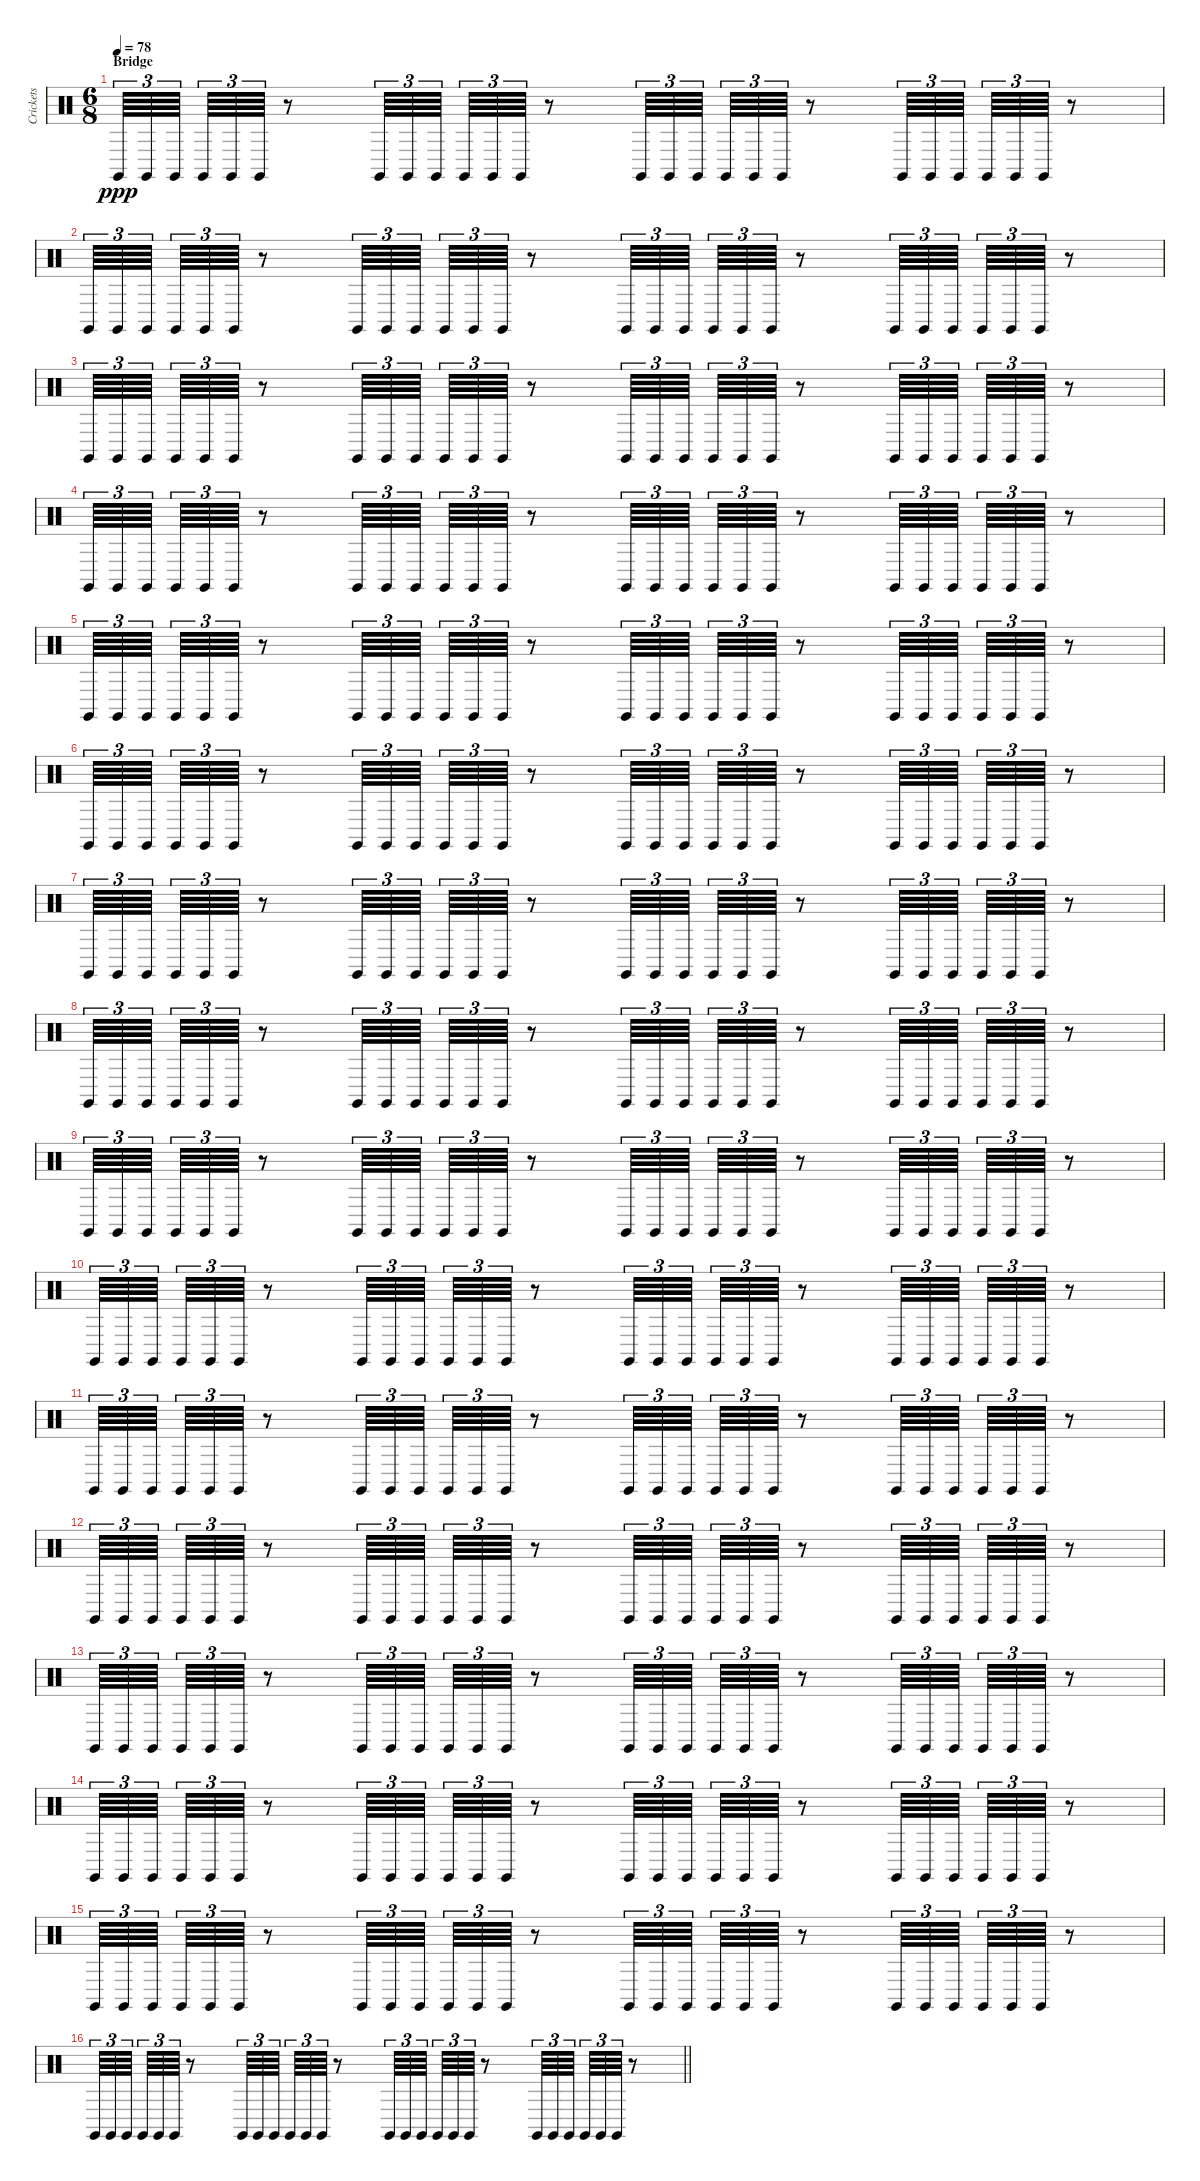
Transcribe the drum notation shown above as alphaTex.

\track ("Crickets" "Crickets") {instrument percussion}
\staff {score}
\articulation defaults
\ts (6 8)
\section ("" "Bridge")
\tempo 78
\clef neutral
\ks c "Claves (hit)".64{tu (3 2) dy ppp} "Claves (hit)".64{tu (3 2)} "Claves (hit)".64{tu (3 2) beam splitsecondary} "Claves (hit)".64{tu (3 2)} "Claves (hit)".64{tu (3 2)} "Claves (hit)".64{tu (3 2)}
r.8 "Claves (hit)".64{tu (3 2)} "Claves (hit)".64{tu (3 2)} "Claves (hit)".64{tu (3 2) beam splitsecondary} "Claves (hit)".64{tu (3 2)} "Claves (hit)".64{tu (3 2)} "Claves (hit)".64{tu (3 2)} r.8 "Claves (hit)".64{tu (3 2)} "Claves (hit)".64{tu (3 2)} "Claves (hit)".64{tu (3 2) beam splitsecondary} "Claves (hit)".64{tu (3 2)} "Claves (hit)".64{tu (3 2)} "Claves (hit)".64{tu (3 2)} r.8 "Claves (hit)".64{tu (3 2)} "Claves (hit)".64{tu (3 2)} "Claves (hit)".64{tu (3 2) beam splitsecondary} "Claves (hit)".64{tu (3 2)} "Claves (hit)".64{tu (3 2)} "Claves (hit)".64{tu (3 2)} r.8 |
"Claves (hit)".64{tu (3 2)} "Claves (hit)".64{tu (3 2)} "Claves (hit)".64{tu (3 2) beam splitsecondary} "Claves (hit)".64{tu (3 2)} "Claves (hit)".64{tu (3 2)} "Claves (hit)".64{tu (3 2)} r.8 "Claves (hit)".64{tu (3 2)} "Claves (hit)".64{tu (3 2)} "Claves (hit)".64{tu (3 2) beam splitsecondary} "Claves (hit)".64{tu (3 2)} "Claves (hit)".64{tu (3 2)} "Claves (hit)".64{tu (3 2)} r.8 "Claves (hit)".64{tu (3 2)} "Claves (hit)".64{tu (3 2)} "Claves (hit)".64{tu (3 2) beam splitsecondary} "Claves (hit)".64{tu (3 2)} "Claves (hit)".64{tu (3 2)} "Claves (hit)".64{tu (3 2)} r.8 "Claves (hit)".64{tu (3 2)} "Claves (hit)".64{tu (3 2)} "Claves (hit)".64{tu (3 2) beam splitsecondary} "Claves (hit)".64{tu (3 2)} "Claves (hit)".64{tu (3 2)} "Claves (hit)".64{tu (3 2)} r.8 |
"Claves (hit)".64{tu (3 2)} "Claves (hit)".64{tu (3 2)} "Claves (hit)".64{tu (3 2) beam splitsecondary} "Claves (hit)".64{tu (3 2)} "Claves (hit)".64{tu (3 2)} "Claves (hit)".64{tu (3 2)} r.8 "Claves (hit)".64{tu (3 2)} "Claves (hit)".64{tu (3 2)} "Claves (hit)".64{tu (3 2) beam splitsecondary} "Claves (hit)".64{tu (3 2)} "Claves (hit)".64{tu (3 2)} "Claves (hit)".64{tu (3 2)} r.8 "Claves (hit)".64{tu (3 2)} "Claves (hit)".64{tu (3 2)} "Claves (hit)".64{tu (3 2) beam splitsecondary} "Claves (hit)".64{tu (3 2)} "Claves (hit)".64{tu (3 2)} "Claves (hit)".64{tu (3 2)} r.8 "Claves (hit)".64{tu (3 2)} "Claves (hit)".64{tu (3 2)} "Claves (hit)".64{tu (3 2) beam splitsecondary} "Claves (hit)".64{tu (3 2)} "Claves (hit)".64{tu (3 2)} "Claves (hit)".64{tu (3 2)} r.8 |
"Claves (hit)".64{tu (3 2)} "Claves (hit)".64{tu (3 2)} "Claves (hit)".64{tu (3 2) beam splitsecondary} "Claves (hit)".64{tu (3 2)} "Claves (hit)".64{tu (3 2)} "Claves (hit)".64{tu (3 2)} r.8 "Claves (hit)".64{tu (3 2)} "Claves (hit)".64{tu (3 2)} "Claves (hit)".64{tu (3 2) beam splitsecondary} "Claves (hit)".64{tu (3 2)} "Claves (hit)".64{tu (3 2)} "Claves (hit)".64{tu (3 2)} r.8 "Claves (hit)".64{tu (3 2)} "Claves (hit)".64{tu (3 2)} "Claves (hit)".64{tu (3 2) beam splitsecondary} "Claves (hit)".64{tu (3 2)} "Claves (hit)".64{tu (3 2)} "Claves (hit)".64{tu (3 2)} r.8 "Claves (hit)".64{tu (3 2)} "Claves (hit)".64{tu (3 2)} "Claves (hit)".64{tu (3 2) beam splitsecondary} "Claves (hit)".64{tu (3 2)} "Claves (hit)".64{tu (3 2)} "Claves (hit)".64{tu (3 2)} r.8 |
"Claves (hit)".64{tu (3 2)} "Claves (hit)".64{tu (3 2)} "Claves (hit)".64{tu (3 2) beam splitsecondary} "Claves (hit)".64{tu (3 2)} "Claves (hit)".64{tu (3 2)} "Claves (hit)".64{tu (3 2)} r.8 "Claves (hit)".64{tu (3 2)} "Claves (hit)".64{tu (3 2)} "Claves (hit)".64{tu (3 2) beam splitsecondary} "Claves (hit)".64{tu (3 2)} "Claves (hit)".64{tu (3 2)} "Claves (hit)".64{tu (3 2)} r.8 "Claves (hit)".64{tu (3 2)} "Claves (hit)".64{tu (3 2)} "Claves (hit)".64{tu (3 2) beam splitsecondary} "Claves (hit)".64{tu (3 2)} "Claves (hit)".64{tu (3 2)} "Claves (hit)".64{tu (3 2)} r.8 "Claves (hit)".64{tu (3 2)} "Claves (hit)".64{tu (3 2)} "Claves (hit)".64{tu (3 2) beam splitsecondary} "Claves (hit)".64{tu (3 2)} "Claves (hit)".64{tu (3 2)} "Claves (hit)".64{tu (3 2)} r.8 |
"Claves (hit)".64{tu (3 2)} "Claves (hit)".64{tu (3 2)} "Claves (hit)".64{tu (3 2) beam splitsecondary} "Claves (hit)".64{tu (3 2)} "Claves (hit)".64{tu (3 2)} "Claves (hit)".64{tu (3 2)} r.8 "Claves (hit)".64{tu (3 2)} "Claves (hit)".64{tu (3 2)} "Claves (hit)".64{tu (3 2) beam splitsecondary} "Claves (hit)".64{tu (3 2)} "Claves (hit)".64{tu (3 2)} "Claves (hit)".64{tu (3 2)} r.8 "Claves (hit)".64{tu (3 2)} "Claves (hit)".64{tu (3 2)} "Claves (hit)".64{tu (3 2) beam splitsecondary} "Claves (hit)".64{tu (3 2)} "Claves (hit)".64{tu (3 2)} "Claves (hit)".64{tu (3 2)} r.8 "Claves (hit)".64{tu (3 2)} "Claves (hit)".64{tu (3 2)} "Claves (hit)".64{tu (3 2) beam splitsecondary} "Claves (hit)".64{tu (3 2)} "Claves (hit)".64{tu (3 2)} "Claves (hit)".64{tu (3 2)} r.8 |
"Claves (hit)".64{tu (3 2)} "Claves (hit)".64{tu (3 2)} "Claves (hit)".64{tu (3 2) beam splitsecondary} "Claves (hit)".64{tu (3 2)} "Claves (hit)".64{tu (3 2)} "Claves (hit)".64{tu (3 2)} r.8 "Claves (hit)".64{tu (3 2)} "Claves (hit)".64{tu (3 2)} "Claves (hit)".64{tu (3 2) beam splitsecondary} "Claves (hit)".64{tu (3 2)} "Claves (hit)".64{tu (3 2)} "Claves (hit)".64{tu (3 2)} r.8 "Claves (hit)".64{tu (3 2)} "Claves (hit)".64{tu (3 2)} "Claves (hit)".64{tu (3 2) beam splitsecondary} "Claves (hit)".64{tu (3 2)} "Claves (hit)".64{tu (3 2)} "Claves (hit)".64{tu (3 2)} r.8 "Claves (hit)".64{tu (3 2)} "Claves (hit)".64{tu (3 2)} "Claves (hit)".64{tu (3 2) beam splitsecondary} "Claves (hit)".64{tu (3 2)} "Claves (hit)".64{tu (3 2)} "Claves (hit)".64{tu (3 2)} r.8 |
"Claves (hit)".64{tu (3 2)} "Claves (hit)".64{tu (3 2)} "Claves (hit)".64{tu (3 2) beam splitsecondary} "Claves (hit)".64{tu (3 2)} "Claves (hit)".64{tu (3 2)} "Claves (hit)".64{tu (3 2)} r.8 "Claves (hit)".64{tu (3 2)} "Claves (hit)".64{tu (3 2)} "Claves (hit)".64{tu (3 2) beam splitsecondary} "Claves (hit)".64{tu (3 2)} "Claves (hit)".64{tu (3 2)} "Claves (hit)".64{tu (3 2)} r.8 "Claves (hit)".64{tu (3 2)} "Claves (hit)".64{tu (3 2)} "Claves (hit)".64{tu (3 2) beam splitsecondary} "Claves (hit)".64{tu (3 2)} "Claves (hit)".64{tu (3 2)} "Claves (hit)".64{tu (3 2)} r.8 "Claves (hit)".64{tu (3 2)} "Claves (hit)".64{tu (3 2)} "Claves (hit)".64{tu (3 2) beam splitsecondary} "Claves (hit)".64{tu (3 2)} "Claves (hit)".64{tu (3 2)} "Claves (hit)".64{tu (3 2)} r.8 |
"Claves (hit)".64{tu (3 2)} "Claves (hit)".64{tu (3 2)} "Claves (hit)".64{tu (3 2) beam splitsecondary} "Claves (hit)".64{tu (3 2)} "Claves (hit)".64{tu (3 2)} "Claves (hit)".64{tu (3 2)} r.8 "Claves (hit)".64{tu (3 2)} "Claves (hit)".64{tu (3 2)} "Claves (hit)".64{tu (3 2) beam splitsecondary} "Claves (hit)".64{tu (3 2)} "Claves (hit)".64{tu (3 2)} "Claves (hit)".64{tu (3 2)} r.8 "Claves (hit)".64{tu (3 2)} "Claves (hit)".64{tu (3 2)} "Claves (hit)".64{tu (3 2) beam splitsecondary} "Claves (hit)".64{tu (3 2)} "Claves (hit)".64{tu (3 2)} "Claves (hit)".64{tu (3 2)} r.8 "Claves (hit)".64{tu (3 2)} "Claves (hit)".64{tu (3 2)} "Claves (hit)".64{tu (3 2) beam splitsecondary} "Claves (hit)".64{tu (3 2)} "Claves (hit)".64{tu (3 2)} "Claves (hit)".64{tu (3 2)} r.8 |
"Claves (hit)".64{tu (3 2)} "Claves (hit)".64{tu (3 2)} "Claves (hit)".64{tu (3 2) beam splitsecondary} "Claves (hit)".64{tu (3 2)} "Claves (hit)".64{tu (3 2)} "Claves (hit)".64{tu (3 2)} r.8 "Claves (hit)".64{tu (3 2)} "Claves (hit)".64{tu (3 2)} "Claves (hit)".64{tu (3 2) beam splitsecondary} "Claves (hit)".64{tu (3 2)} "Claves (hit)".64{tu (3 2)} "Claves (hit)".64{tu (3 2)} r.8 "Claves (hit)".64{tu (3 2)} "Claves (hit)".64{tu (3 2)} "Claves (hit)".64{tu (3 2) beam splitsecondary} "Claves (hit)".64{tu (3 2)} "Claves (hit)".64{tu (3 2)} "Claves (hit)".64{tu (3 2)} r.8 "Claves (hit)".64{tu (3 2)} "Claves (hit)".64{tu (3 2)} "Claves (hit)".64{tu (3 2) beam splitsecondary} "Claves (hit)".64{tu (3 2)} "Claves (hit)".64{tu (3 2)} "Claves (hit)".64{tu (3 2)} r.8 |
"Claves (hit)".64{tu (3 2)} "Claves (hit)".64{tu (3 2)} "Claves (hit)".64{tu (3 2) beam splitsecondary} "Claves (hit)".64{tu (3 2)} "Claves (hit)".64{tu (3 2)} "Claves (hit)".64{tu (3 2)} r.8 "Claves (hit)".64{tu (3 2)} "Claves (hit)".64{tu (3 2)} "Claves (hit)".64{tu (3 2) beam splitsecondary} "Claves (hit)".64{tu (3 2)} "Claves (hit)".64{tu (3 2)} "Claves (hit)".64{tu (3 2)} r.8 "Claves (hit)".64{tu (3 2)} "Claves (hit)".64{tu (3 2)} "Claves (hit)".64{tu (3 2) beam splitsecondary} "Claves (hit)".64{tu (3 2)} "Claves (hit)".64{tu (3 2)} "Claves (hit)".64{tu (3 2)} r.8 "Claves (hit)".64{tu (3 2)} "Claves (hit)".64{tu (3 2)} "Claves (hit)".64{tu (3 2) beam splitsecondary} "Claves (hit)".64{tu (3 2)} "Claves (hit)".64{tu (3 2)} "Claves (hit)".64{tu (3 2)} r.8 |
"Claves (hit)".64{tu (3 2)} "Claves (hit)".64{tu (3 2)} "Claves (hit)".64{tu (3 2) beam splitsecondary} "Claves (hit)".64{tu (3 2)} "Claves (hit)".64{tu (3 2)} "Claves (hit)".64{tu (3 2)} r.8 "Claves (hit)".64{tu (3 2)} "Claves (hit)".64{tu (3 2)} "Claves (hit)".64{tu (3 2) beam splitsecondary} "Claves (hit)".64{tu (3 2)} "Claves (hit)".64{tu (3 2)} "Claves (hit)".64{tu (3 2)} r.8 "Claves (hit)".64{tu (3 2)} "Claves (hit)".64{tu (3 2)} "Claves (hit)".64{tu (3 2) beam splitsecondary} "Claves (hit)".64{tu (3 2)} "Claves (hit)".64{tu (3 2)} "Claves (hit)".64{tu (3 2)} r.8 "Claves (hit)".64{tu (3 2)} "Claves (hit)".64{tu (3 2)} "Claves (hit)".64{tu (3 2) beam splitsecondary} "Claves (hit)".64{tu (3 2)} "Claves (hit)".64{tu (3 2)} "Claves (hit)".64{tu (3 2)} r.8 |
"Claves (hit)".64{tu (3 2)} "Claves (hit)".64{tu (3 2)} "Claves (hit)".64{tu (3 2) beam splitsecondary} "Claves (hit)".64{tu (3 2)} "Claves (hit)".64{tu (3 2)} "Claves (hit)".64{tu (3 2)} r.8 "Claves (hit)".64{tu (3 2)} "Claves (hit)".64{tu (3 2)} "Claves (hit)".64{tu (3 2) beam splitsecondary} "Claves (hit)".64{tu (3 2)} "Claves (hit)".64{tu (3 2)} "Claves (hit)".64{tu (3 2)} r.8 "Claves (hit)".64{tu (3 2)} "Claves (hit)".64{tu (3 2)} "Claves (hit)".64{tu (3 2) beam splitsecondary} "Claves (hit)".64{tu (3 2)} "Claves (hit)".64{tu (3 2)} "Claves (hit)".64{tu (3 2)} r.8 "Claves (hit)".64{tu (3 2)} "Claves (hit)".64{tu (3 2)} "Claves (hit)".64{tu (3 2) beam splitsecondary} "Claves (hit)".64{tu (3 2)} "Claves (hit)".64{tu (3 2)} "Claves (hit)".64{tu (3 2)} r.8 |
"Claves (hit)".64{tu (3 2)} "Claves (hit)".64{tu (3 2)} "Claves (hit)".64{tu (3 2) beam splitsecondary} "Claves (hit)".64{tu (3 2)} "Claves (hit)".64{tu (3 2)} "Claves (hit)".64{tu (3 2)} r.8 "Claves (hit)".64{tu (3 2)} "Claves (hit)".64{tu (3 2)} "Claves (hit)".64{tu (3 2) beam splitsecondary} "Claves (hit)".64{tu (3 2)} "Claves (hit)".64{tu (3 2)} "Claves (hit)".64{tu (3 2)} r.8 "Claves (hit)".64{tu (3 2)} "Claves (hit)".64{tu (3 2)} "Claves (hit)".64{tu (3 2) beam splitsecondary} "Claves (hit)".64{tu (3 2)} "Claves (hit)".64{tu (3 2)} "Claves (hit)".64{tu (3 2)} r.8 "Claves (hit)".64{tu (3 2)} "Claves (hit)".64{tu (3 2)} "Claves (hit)".64{tu (3 2) beam splitsecondary} "Claves (hit)".64{tu (3 2)} "Claves (hit)".64{tu (3 2)} "Claves (hit)".64{tu (3 2)} r.8 |
"Claves (hit)".64{tu (3 2)} "Claves (hit)".64{tu (3 2)} "Claves (hit)".64{tu (3 2) beam splitsecondary} "Claves (hit)".64{tu (3 2)} "Claves (hit)".64{tu (3 2)} "Claves (hit)".64{tu (3 2)} r.8 "Claves (hit)".64{tu (3 2)} "Claves (hit)".64{tu (3 2)} "Claves (hit)".64{tu (3 2) beam splitsecondary} "Claves (hit)".64{tu (3 2)} "Claves (hit)".64{tu (3 2)} "Claves (hit)".64{tu (3 2)} r.8 "Claves (hit)".64{tu (3 2)} "Claves (hit)".64{tu (3 2)} "Claves (hit)".64{tu (3 2) beam splitsecondary} "Claves (hit)".64{tu (3 2)} "Claves (hit)".64{tu (3 2)} "Claves (hit)".64{tu (3 2)} r.8 "Claves (hit)".64{tu (3 2)} "Claves (hit)".64{tu (3 2)} "Claves (hit)".64{tu (3 2) beam splitsecondary} "Claves (hit)".64{tu (3 2)} "Claves (hit)".64{tu (3 2)} "Claves (hit)".64{tu (3 2)} r.8 |
\barLineRight lightlight "Claves (hit)".64{tu (3 2)} "Claves (hit)".64{tu (3 2)} "Claves (hit)".64{tu (3 2) beam splitsecondary} "Claves (hit)".64{tu (3 2)} "Claves (hit)".64{tu (3 2)} "Claves (hit)".64{tu (3 2)}
r.8 "Claves (hit)".64{tu (3 2)} "Claves (hit)".64{tu (3 2)} "Claves (hit)".64{tu (3 2) beam splitsecondary} "Claves (hit)".64{tu (3 2)} "Claves (hit)".64{tu (3 2)} "Claves (hit)".64{tu (3 2)} r.8 "Claves (hit)".64{tu (3 2)} "Claves (hit)".64{tu (3 2)} "Claves (hit)".64{tu (3 2) beam splitsecondary} "Claves (hit)".64{tu (3 2)} "Claves (hit)".64{tu (3 2)} "Claves (hit)".64{tu (3 2)} r.8 "Claves (hit)".64{tu (3 2)} "Claves (hit)".64{tu (3 2)} "Claves (hit)".64{tu (3 2) beam splitsecondary} "Claves (hit)".64{tu (3 2)} "Claves (hit)".64{tu (3 2)} "Claves (hit)".64{tu (3 2)} r.8
